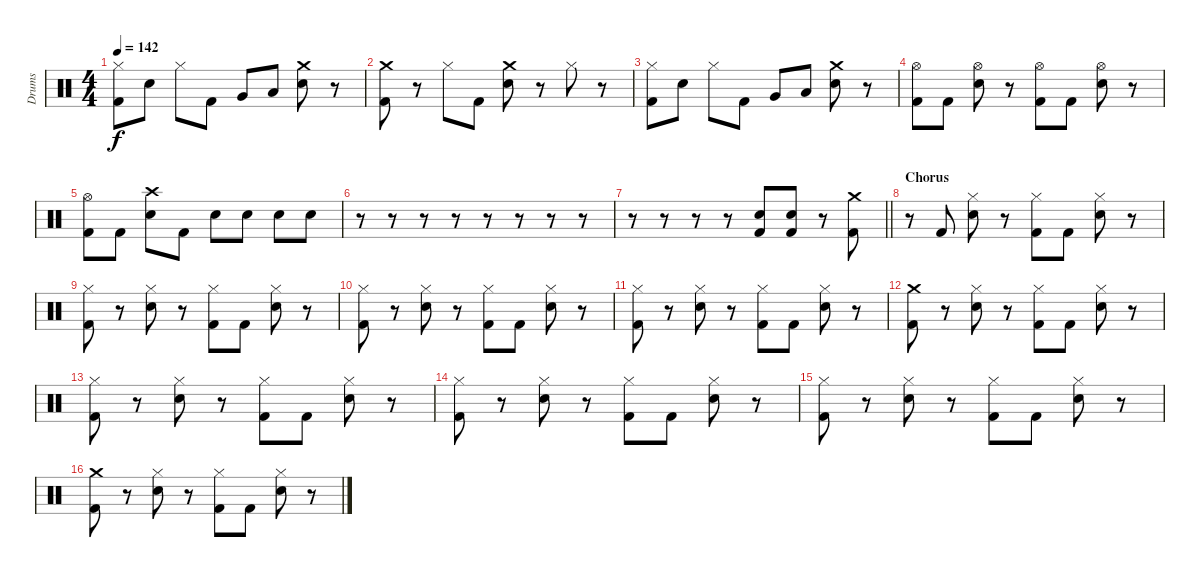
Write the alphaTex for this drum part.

\track ("Drums" "Drums") {instrument percussion}
\staff {score}
\articulation defaults
\ts (4 4)
\tempo 142
\clef neutral
\ks c
("Hi-Hat (closed)" "Kick (hit) 2").8{dy f} "Electric Snare (hit)".8 "Hi-Hat (closed)".8 "Kick (hit) 2".8 "Very Low Tom (hit)".8 "Low Floor Tom (hit)".8 ("Crash medium (hit)" "Electric Snare (hit)").8 r.8 |
("Crash medium (hit)" "Kick (hit) 2").8 r.8 "Hi-Hat (closed)".8 "Kick (hit) 2".8 ("Crash medium (hit)" "Electric Snare (hit)").8 r.8 "Hi-Hat (closed)".8 r.8 |
("Hi-Hat (closed)" "Kick (hit) 2").8 "Electric Snare (hit)".8 "Hi-Hat (closed)".8 "Kick (hit) 2".8 "Very Low Tom (hit)".8 "Low Floor Tom (hit)".8 ("Crash medium (hit)" "Electric Snare (hit)").8 r.8 |
("Hi-Hat (open)" "Kick (hit) 2").8 "Kick (hit) 2".8 ("Hi-Hat (open)" "Electric Snare (hit)").8 r.8 ("Hi-Hat (open)" "Kick (hit) 2").8 "Kick (hit) 2".8 ("Hi-Hat (open)" "Electric Snare (hit)").8 r.8 |
("Hi-Hat (open)" "Kick (hit) 2").8 "Kick (hit) 2".8 ("Crash high (hit)" "Electric Snare (hit)").8 "Kick (hit) 2".8 "Electric Snare (hit)".8 "Electric Snare (hit)".8 "Electric Snare (hit)".8 "Electric Snare (hit)".8 |
r.8 r.8 r.8 r.8 r.8 r.8 r.8 r.8 |
\barLineRight lightlight
r.8 r.8 r.8 r.8 ("Electric Snare (hit)" "Kick (hit) 2").8 ("Electric Snare (hit)" "Kick (hit) 2").8 r.8 ("Crash medium (hit)" "Kick (hit) 2").8 |
\section ("" "Chorus")
r.8 "Kick (hit) 2".8 ("Hi-Hat (closed)" "Electric Snare (hit)").8 r.8 ("Hi-Hat (closed)" "Kick (hit) 2").8 "Kick (hit) 2".8 ("Hi-Hat (closed)" "Electric Snare (hit)").8 r.8 |
("Hi-Hat (closed)" "Kick (hit) 2").8 r.8 ("Hi-Hat (closed)" "Electric Snare (hit)").8 r.8 ("Hi-Hat (closed)" "Kick (hit) 2").8 "Kick (hit) 2".8 ("Hi-Hat (closed)" "Electric Snare (hit)").8 r.8 |
("Hi-Hat (closed)" "Kick (hit) 2").8 r.8 ("Hi-Hat (closed)" "Electric Snare (hit)").8 r.8 ("Hi-Hat (closed)" "Kick (hit) 2").8 "Kick (hit) 2".8 ("Hi-Hat (closed)" "Electric Snare (hit)").8 r.8 |
("Hi-Hat (closed)" "Kick (hit) 2").8 r.8 ("Hi-Hat (closed)" "Electric Snare (hit)").8 r.8 ("Hi-Hat (closed)" "Kick (hit) 2").8 "Kick (hit) 2".8 ("Hi-Hat (closed)" "Electric Snare (hit)").8 r.8 |
("Crash medium (hit)" "Kick (hit) 2").8 r.8 ("Hi-Hat (closed)" "Electric Snare (hit)").8 r.8 ("Hi-Hat (closed)" "Kick (hit) 2").8 "Kick (hit) 2".8 ("Hi-Hat (closed)" "Electric Snare (hit)").8 r.8 |
("Hi-Hat (closed)" "Kick (hit) 2").8 r.8 ("Hi-Hat (closed)" "Electric Snare (hit)").8 r.8 ("Hi-Hat (closed)" "Kick (hit) 2").8 "Kick (hit) 2".8 ("Hi-Hat (closed)" "Electric Snare (hit)").8 r.8 |
("Hi-Hat (closed)" "Kick (hit) 2").8 r.8 ("Hi-Hat (closed)" "Electric Snare (hit)").8 r.8 ("Hi-Hat (closed)" "Kick (hit) 2").8 "Kick (hit) 2".8 ("Hi-Hat (closed)" "Electric Snare (hit)").8 r.8 |
("Hi-Hat (closed)" "Kick (hit) 2").8 r.8 ("Hi-Hat (closed)" "Electric Snare (hit)").8 r.8 ("Hi-Hat (closed)" "Kick (hit) 2").8 "Kick (hit) 2".8 ("Hi-Hat (closed)" "Electric Snare (hit)").8 r.8 |
("Crash medium (hit)" "Kick (hit) 2").8 r.8 ("Hi-Hat (closed)" "Electric Snare (hit)").8 r.8 ("Hi-Hat (closed)" "Kick (hit) 2").8 "Kick (hit) 2".8 ("Hi-Hat (closed)" "Electric Snare (hit)").8 r.8
